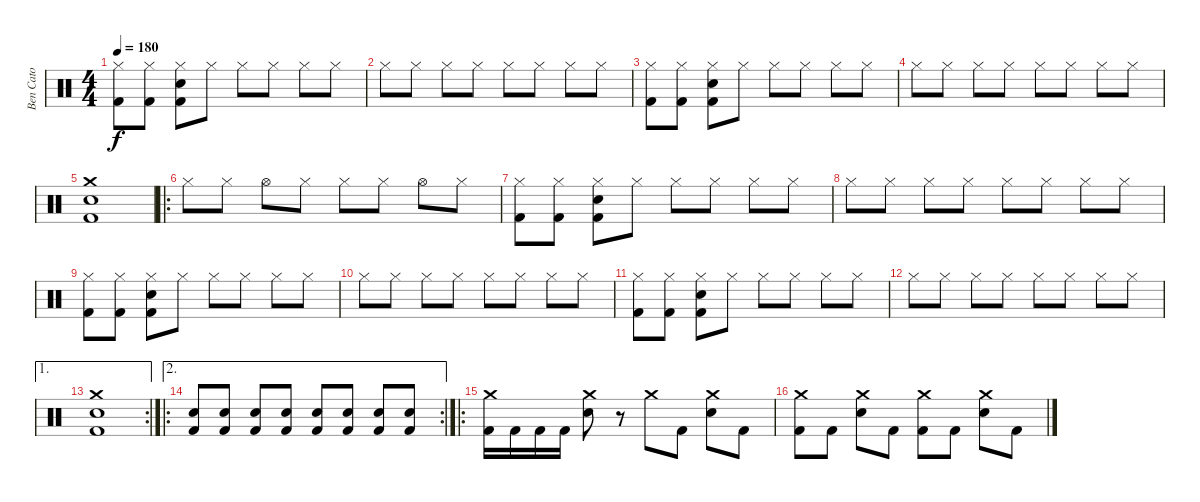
\track ("Ben Cato" "Ben Cato") {instrument percussion}
\staff {score}
\articulation defaults
\ts (4 4)
\tempo 180
\clef neutral
\ks c
("Hi-Hat (closed)" "Kick (hit) 2").8{dy f} ("Hi-Hat (closed)" "Kick (hit) 2").8 ("Hi-Hat (closed)" "Electric Snare (hit)" "Kick (hit) 2").8 "Hi-Hat (closed)".8 "Hi-Hat (closed)".8 "Hi-Hat (closed)".8 "Hi-Hat (closed)".8 "Hi-Hat (closed)".8 |
"Hi-Hat (closed)".8 "Hi-Hat (closed)".8 "Hi-Hat (closed)".8 "Hi-Hat (closed)".8 "Hi-Hat (closed)".8 "Hi-Hat (closed)".8 "Hi-Hat (closed)".8 "Hi-Hat (closed)".8 |
("Hi-Hat (closed)" "Kick (hit) 2").8 ("Hi-Hat (closed)" "Kick (hit) 2").8 ("Hi-Hat (closed)" "Electric Snare (hit)" "Kick (hit) 2").8 "Hi-Hat (closed)".8 "Hi-Hat (closed)".8 "Hi-Hat (closed)".8 "Hi-Hat (closed)".8 "Hi-Hat (closed)".8 |
"Hi-Hat (closed)".8 "Hi-Hat (closed)".8 "Hi-Hat (closed)".8 "Hi-Hat (closed)".8 "Hi-Hat (closed)".8 "Hi-Hat (closed)".8 "Hi-Hat (closed)".8 "Hi-Hat (closed)".8 |
("Crash medium (hit)" "Electric Snare (hit)" "Kick (hit) 2").1 |
\ro "Hi-Hat (closed)".8 "Hi-Hat (closed)".8 "Hi-Hat (open)".8 "Hi-Hat (closed)".8 "Hi-Hat (closed)".8 "Hi-Hat (closed)".8 "Hi-Hat (open)".8 "Hi-Hat (closed)".8
|
("Hi-Hat (closed)" "Kick (hit) 2").8 ("Hi-Hat (closed)" "Kick (hit) 2").8 ("Hi-Hat (closed)" "Electric Snare (hit)" "Kick (hit) 2").8 "Hi-Hat (closed)".8 "Hi-Hat (closed)".8 "Hi-Hat (closed)".8 "Hi-Hat (closed)".8 "Hi-Hat (closed)".8 |
"Hi-Hat (closed)".8 "Hi-Hat (closed)".8 "Hi-Hat (closed)".8 "Hi-Hat (closed)".8 "Hi-Hat (closed)".8 "Hi-Hat (closed)".8 "Hi-Hat (closed)".8 "Hi-Hat (closed)".8 |
("Hi-Hat (closed)" "Kick (hit) 2").8 ("Hi-Hat (closed)" "Kick (hit) 2").8 ("Hi-Hat (closed)" "Electric Snare (hit)" "Kick (hit) 2").8 "Hi-Hat (closed)".8 "Hi-Hat (closed)".8 "Hi-Hat (closed)".8 "Hi-Hat (closed)".8 "Hi-Hat (closed)".8 |
"Hi-Hat (closed)".8 "Hi-Hat (closed)".8 "Hi-Hat (closed)".8 "Hi-Hat (closed)".8 "Hi-Hat (closed)".8 "Hi-Hat (closed)".8 "Hi-Hat (closed)".8 "Hi-Hat (closed)".8 |
("Hi-Hat (closed)" "Kick (hit) 2").8 ("Hi-Hat (closed)" "Kick (hit) 2").8 ("Hi-Hat (closed)" "Electric Snare (hit)" "Kick (hit) 2").8 "Hi-Hat (closed)".8 "Hi-Hat (closed)".8 "Hi-Hat (closed)".8 "Hi-Hat (closed)".8 "Hi-Hat (closed)".8 |
"Hi-Hat (closed)".8 "Hi-Hat (closed)".8 "Hi-Hat (closed)".8 "Hi-Hat (closed)".8 "Hi-Hat (closed)".8 "Hi-Hat (closed)".8 "Hi-Hat (closed)".8 "Hi-Hat (closed)".8 |
\ae 1
\rc 2
("Crash medium (hit)" "Electric Snare (hit)" "Kick (hit) 2").1 |
\ae 2
\ro
\rc 2
("Electric Snare (hit)" "Kick (hit) 2").8 ("Electric Snare (hit)" "Kick (hit) 2").8 ("Electric Snare (hit)" "Kick (hit) 2").8 ("Electric Snare (hit)" "Kick (hit) 2").8 ("Electric Snare (hit)" "Kick (hit) 2").8 ("Electric Snare (hit)" "Kick (hit) 2").8 ("Electric Snare (hit)" "Kick (hit) 2").8 ("Electric Snare (hit)" "Kick (hit) 2").8 |
\ro
("Crash medium (hit)" "Kick (hit) 2").16 "Kick (hit) 2".16 "Kick (hit) 2".16 "Kick (hit) 2".16 ("Crash medium (hit)" "Electric Snare (hit)").8 r.8 "Crash medium (hit)".8 "Kick (hit) 2".8 ("Crash medium (hit)" "Electric Snare (hit)").8 "Kick (hit) 2".8 |
("Crash medium (hit)" "Kick (hit) 2").8 "Kick (hit) 2".8 ("Crash medium (hit)" "Electric Snare (hit)").8 "Kick (hit) 2".8 ("Crash medium (hit)" "Kick (hit) 2").8 "Kick (hit) 2".8 ("Crash medium (hit)" "Electric Snare (hit)").8 "Kick (hit) 2".8
